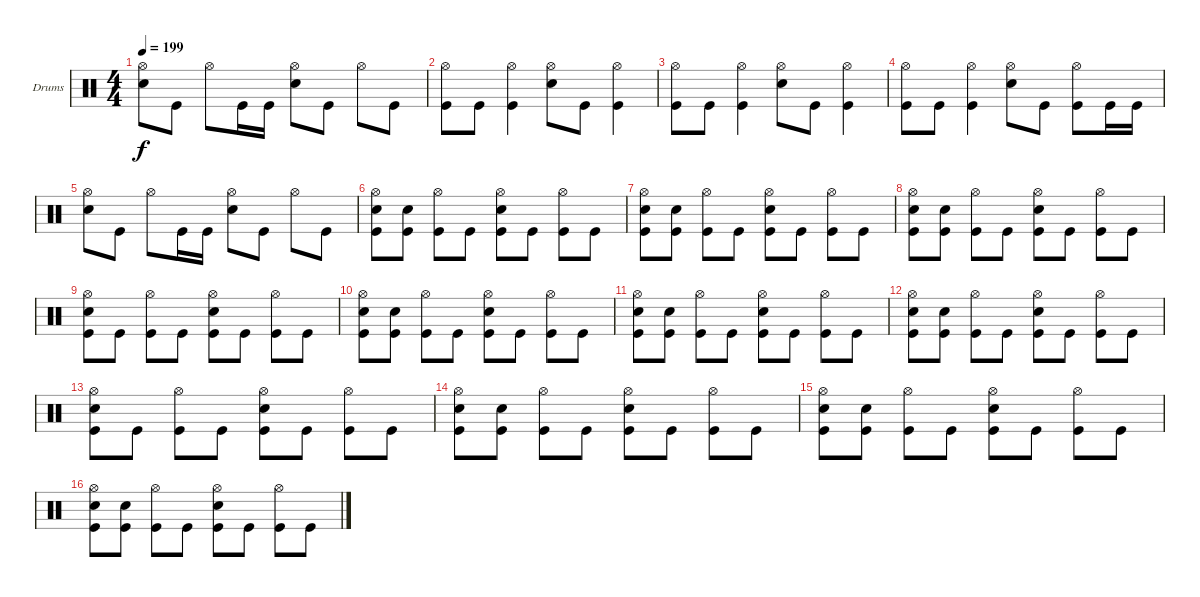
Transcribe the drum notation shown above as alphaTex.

\bracketExtendMode groupsimilarinstruments
\firstSystemTrackNameOrientation horizontal
\otherSystemsTrackNameOrientation horizontal
\track ("Drumkit" "Drums") {instrument percussion}
\staff {score}
\articulation defaults
\ts (4 4)
\tempo 199
\clef neutral
\ks c
("Hi-Hat (open)" "Snare (hit) 2").8{dy f} "Kick (hit)".8 "Hi-Hat (open)".8 "Kick (hit)".16 "Kick (hit)".16 ("Hi-Hat (open)" "Snare (hit) 2").8 "Kick (hit)".8 "Hi-Hat (open)".8 "Kick (hit)".8 |
("Hi-Hat (open)" "Kick (hit)").8 "Kick (hit)".8 ("Hi-Hat (open)" "Kick (hit)").4 ("Hi-Hat (open)" "Snare (hit) 2").8 "Kick (hit)".8 ("Hi-Hat (open)" "Kick (hit)").4 |
("Hi-Hat (open)" "Kick (hit)").8 "Kick (hit)".8 ("Hi-Hat (open)" "Kick (hit)").4 ("Hi-Hat (open)" "Snare (hit) 2").8 "Kick (hit)".8 ("Hi-Hat (open)" "Kick (hit)").4 |
("Hi-Hat (open)" "Kick (hit)").8 "Kick (hit)".8 ("Hi-Hat (open)" "Kick (hit)").4 ("Hi-Hat (open)" "Snare (hit) 2").8 "Kick (hit)".8 ("Hi-Hat (open)" "Kick (hit)").8 "Kick (hit)".16 "Kick (hit)".16 |
("Hi-Hat (open)" "Snare (hit) 2").8 "Kick (hit)".8 "Hi-Hat (open)".8 "Kick (hit)".16 "Kick (hit)".16 ("Hi-Hat (open)" "Snare (hit) 2").8 "Kick (hit)".8 "Hi-Hat (open)".8 "Kick (hit)".8 |
("Hi-Hat (open)" "Kick (hit)" "Snare (hit) 2").8 ("Kick (hit)" "Snare (hit) 2").8 ("Hi-Hat (open)" "Kick (hit)").8 "Kick (hit)".8 ("Hi-Hat (open)" "Kick (hit)" "Snare (hit) 2").8 "Kick (hit)".8 ("Hi-Hat (open)" "Kick (hit)").8 "Kick (hit)".8 |
("Hi-Hat (open)" "Kick (hit)" "Snare (hit) 2").8 ("Kick (hit)" "Snare (hit) 2").8 ("Hi-Hat (open)" "Kick (hit)").8 "Kick (hit)".8 ("Hi-Hat (open)" "Kick (hit)" "Snare (hit) 2").8 "Kick (hit)".8 ("Hi-Hat (open)" "Kick (hit)").8 "Kick (hit)".8 |
("Hi-Hat (open)" "Kick (hit)" "Snare (hit) 2").8 ("Kick (hit)" "Snare (hit) 2").8 ("Hi-Hat (open)" "Kick (hit)").8 "Kick (hit)".8 ("Hi-Hat (open)" "Kick (hit)" "Snare (hit) 2").8 "Kick (hit)".8 ("Hi-Hat (open)" "Kick (hit)").8 "Kick (hit)".8 |
("Hi-Hat (open)" "Kick (hit)" "Snare (hit) 2").8 "Kick (hit)".8 ("Hi-Hat (open)" "Kick (hit)").8 "Kick (hit)".8 ("Hi-Hat (open)" "Kick (hit)" "Snare (hit) 2").8 "Kick (hit)".8 ("Hi-Hat (open)" "Kick (hit)").8 "Kick (hit)".8 |
("Hi-Hat (open)" "Kick (hit)" "Snare (hit) 2").8 ("Kick (hit)" "Snare (hit) 2").8 ("Hi-Hat (open)" "Kick (hit)").8 "Kick (hit)".8 ("Hi-Hat (open)" "Kick (hit)" "Snare (hit) 2").8 "Kick (hit)".8 ("Hi-Hat (open)" "Kick (hit)").8 "Kick (hit)".8 |
("Hi-Hat (open)" "Kick (hit)" "Snare (hit) 2").8 ("Kick (hit)" "Snare (hit) 2").8 ("Hi-Hat (open)" "Kick (hit)").8 "Kick (hit)".8 ("Hi-Hat (open)" "Kick (hit)" "Snare (hit) 2").8 "Kick (hit)".8 ("Hi-Hat (open)" "Kick (hit)").8 "Kick (hit)".8 |
("Hi-Hat (open)" "Kick (hit)" "Snare (hit) 2").8 ("Kick (hit)" "Snare (hit) 2").8 ("Hi-Hat (open)" "Kick (hit)").8 "Kick (hit)".8 ("Hi-Hat (open)" "Kick (hit)" "Snare (hit) 2").8 "Kick (hit)".8 ("Hi-Hat (open)" "Kick (hit)").8 "Kick (hit)".8 |
("Hi-Hat (open)" "Kick (hit)" "Snare (hit) 2").8 "Kick (hit)".8 ("Hi-Hat (open)" "Kick (hit)").8 "Kick (hit)".8 ("Hi-Hat (open)" "Kick (hit)" "Snare (hit) 2").8 "Kick (hit)".8 ("Hi-Hat (open)" "Kick (hit)").8 "Kick (hit)".8 |
("Hi-Hat (open)" "Kick (hit)" "Snare (hit) 2").8 ("Kick (hit)" "Snare (hit) 2").8 ("Hi-Hat (open)" "Kick (hit)").8 "Kick (hit)".8 ("Hi-Hat (open)" "Kick (hit)" "Snare (hit) 2").8 "Kick (hit)".8 ("Hi-Hat (open)" "Kick (hit)").8 "Kick (hit)".8 |
("Hi-Hat (open)" "Kick (hit)" "Snare (hit) 2").8 ("Kick (hit)" "Snare (hit) 2").8 ("Hi-Hat (open)" "Kick (hit)").8 "Kick (hit)".8 ("Hi-Hat (open)" "Kick (hit)" "Snare (hit) 2").8 "Kick (hit)".8 ("Hi-Hat (open)" "Kick (hit)").8 "Kick (hit)".8 |
("Hi-Hat (open)" "Kick (hit)" "Snare (hit) 2").8 ("Kick (hit)" "Snare (hit) 2").8 ("Hi-Hat (open)" "Kick (hit)").8 "Kick (hit)".8 ("Hi-Hat (open)" "Kick (hit)" "Snare (hit) 2").8 "Kick (hit)".8 ("Hi-Hat (open)" "Kick (hit)").8 "Kick (hit)".8
